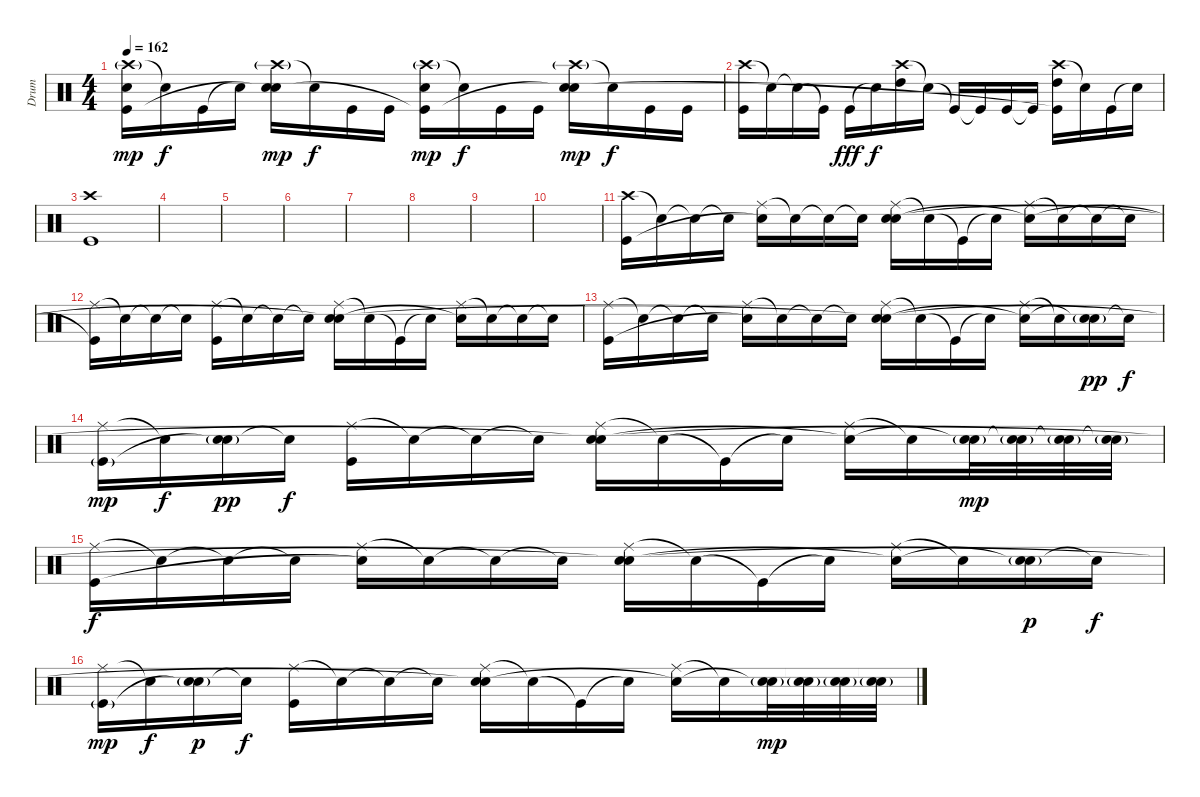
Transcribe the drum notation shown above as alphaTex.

\track ("Drum" "Drum") {instrument percussion}
\staff {score}
\articulation defaults
\ts (4 4)
\tempo 162
\clef neutral
\ks c
("Crash high (hit)"{g} "Electric Snare (hit)" "Kick (hit)"{t}).16{dy mp} "Snare (hit)"{t}.16{dy f} "Kick (hit)".16 "Snare (hit)"{t}.16 ("Crash high (hit)"{g} "Electric Snare (hit)" "Snare (hit)"{t}).16{dy mp} "Snare (hit)"{t}.16{dy f} "Kick (hit)".16 "Kick (hit)".16 ("Crash high (hit)"{g} "Electric Snare (hit)" "Kick (hit)"{t}).16{dy mp} "Snare (hit)"{t}.16{dy f} "Kick (hit)".16 "Kick (hit)".16 ("Crash high (hit)"{g} "Electric Snare (hit)" "Snare (hit)"{t}).16{dy mp} "Snare (hit)"{t}.16{dy f} "Kick (hit)".16 "Kick (hit)".16 |
("Crash high (hit)" "Kick (hit)").16 "Snare (hit)"{t}.16 "Snare (hit)"{t}.16 "Kick (hit)"{t}.16 "Kick (hit)".16{dy fff} "Snare (hit)"{t}.16{dy f} ("Crash high (hit)" "High Tom (hit)").16 "Snare (hit)"{t}.16 "Kick (hit)"{t}.16 "Kick (hit)"{t}.16 "Kick (hit)".16 "Kick (hit)"{t}.16 ("Crash high (hit)" "High Tom (hit)" "Kick (hit)"{t}).16 "Snare (hit)"{t}.16 "Kick (hit)".16 "Snare (hit)"{t}.16 |
("Crash high (hit)" "Kick (hit)").1 |
|
|
|
|
|
|
|
("Crash high (hit)" "Kick (hit)").16 "Snare (hit)"{t}.16 "Snare (hit)"{t}.16 "Snare (hit)"{t}.16 ("Ride (middle)" "Snare (hit)"{t}).16 "Snare (hit)"{t}.16 "Snare (hit)"{t}.16 "Snare (hit)"{t}.16 ("Ride (middle)" "Electric Snare (hit)" "Snare (hit)").16 "Snare (hit)"{t}.16 "Kick (hit)"{t}.16 "Snare (hit)"{t}.16 ("Ride (middle)" "Snare (hit)"{t}).16 "Snare (hit)"{t}.16 "Snare (hit)"{t}.16 "Snare (hit)"{t}.16 |
("Ride (middle)" "Kick (hit)"{t}).16 "Snare (hit)"{t}.16 "Snare (hit)"{t}.16 "Snare (hit)"{t}.16 ("Ride (middle)" "Kick (hit)").16 "Snare (hit)"{t}.16 "Snare (hit)"{t}.16 "Snare (hit)"{t}.16 ("Ride (middle)" "Electric Snare (hit)" "Snare (hit)"{t}).16 "Snare (hit)"{t}.16 "Kick (hit)"{t}.16 "Snare (hit)"{t}.16 ("Ride (middle)" "Snare (hit)"{t}).16 "Snare (hit)"{t}.16 "Snare (hit)"{t}.16 "Snare (hit)"{t}.16 |
("Ride (middle)" "Kick (hit)").16 "Snare (hit)"{t}.16 "Snare (hit)"{t}.16 "Snare (hit)"{t}.16 ("Ride (middle)" "Snare (hit)"{t}).16 "Snare (hit)"{t}.16 "Snare (hit)"{t}.16 "Snare (hit)"{t}.16 ("Ride (middle)" "Electric Snare (hit)" "Snare (hit)"{t}).16 "Snare (hit)"{t}.16 "Kick (hit)"{t}.16 "Snare (hit)"{t}.16 ("Ride (middle)" "Snare (hit)"{t}).16 "Snare (hit)"{t}.16 ("Electric Snare (hit)"{g} "Snare (hit)"{t}).16{dy pp} "Snare (hit)"{t}.16{dy f} |
("Ride (middle)" "Kick (hit)"{g}).16{dy mp} "Snare (hit)"{t}.16{dy f} ("Electric Snare (hit)"{g} "Snare (hit)"{t}).16{dy pp} "Snare (hit)"{t}.16{dy f} ("Ride (middle)" "Kick (hit)").16 "Snare (hit)"{t}.16 "Snare (hit)"{t}.16 "Snare (hit)"{t}.16 ("Ride (middle)" "Electric Snare (hit)" "Snare (hit)"{t}).16 "Snare (hit)"{t}.16 "Kick (hit)"{t}.16 "Snare (hit)"{t}.16 ("Ride (middle)" "Snare (hit)"{t}).16 "Snare (hit)"{t}.16 ("Electric Snare (hit)"{g} "Snare (hit)"{t}).32{dy mp} ("Electric Snare (hit)"{g} "Snare (hit)"{t}).32 ("Electric Snare (hit)"{g} "Snare (hit)"{t}).32 ("Electric Snare (hit)"{g} "Snare (hit)"{t}).32 |
("Ride (middle)" "Kick (hit)").16{dy f} "Snare (hit)"{t}.16 "Snare (hit)"{t}.16 "Snare (hit)"{t}.16 ("Ride (middle)" "Snare (hit)"{t}).16 "Snare (hit)"{t}.16 "Snare (hit)"{t}.16 "Snare (hit)"{t}.16 ("Ride (middle)" "Electric Snare (hit)" "Snare (hit)"{t}).16 "Snare (hit)"{t}.16 "Kick (hit)"{t}.16 "Snare (hit)"{t}.16 ("Ride (middle)" "Snare (hit)"{t}).16 "Snare (hit)"{t}.16 ("Electric Snare (hit)"{g} "Snare (hit)"{t}).16{dy p} "Snare (hit)"{t}.16{dy f} |
("Ride (middle)" "Kick (hit)"{g}).16{dy mp} "Snare (hit)"{t}.16{dy f} ("Electric Snare (hit)"{g} "Snare (hit)"{t}).16{dy p} "Snare (hit)"{t}.16{dy f} ("Ride (middle)" "Kick (hit)").16 "Snare (hit)"{t}.16 "Snare (hit)"{t}.16 "Snare (hit)"{t}.16 ("Ride (middle)" "Electric Snare (hit)" "Snare (hit)"{t}).16 "Snare (hit)"{t}.16 "Kick (hit)"{t}.16 "Snare (hit)"{t}.16 ("Ride (middle)" "Snare (hit)"{t}).16 "Snare (hit)"{t}.16 ("Electric Snare (hit)"{g} "Snare (hit)"{t}).32{dy mp} ("Electric Snare (hit)"{g} "Snare (hit)"{t}).32 ("Electric Snare (hit)"{g} "Snare (hit)"{t}).32 ("Electric Snare (hit)"{g} "Snare (hit)"{t}).32
